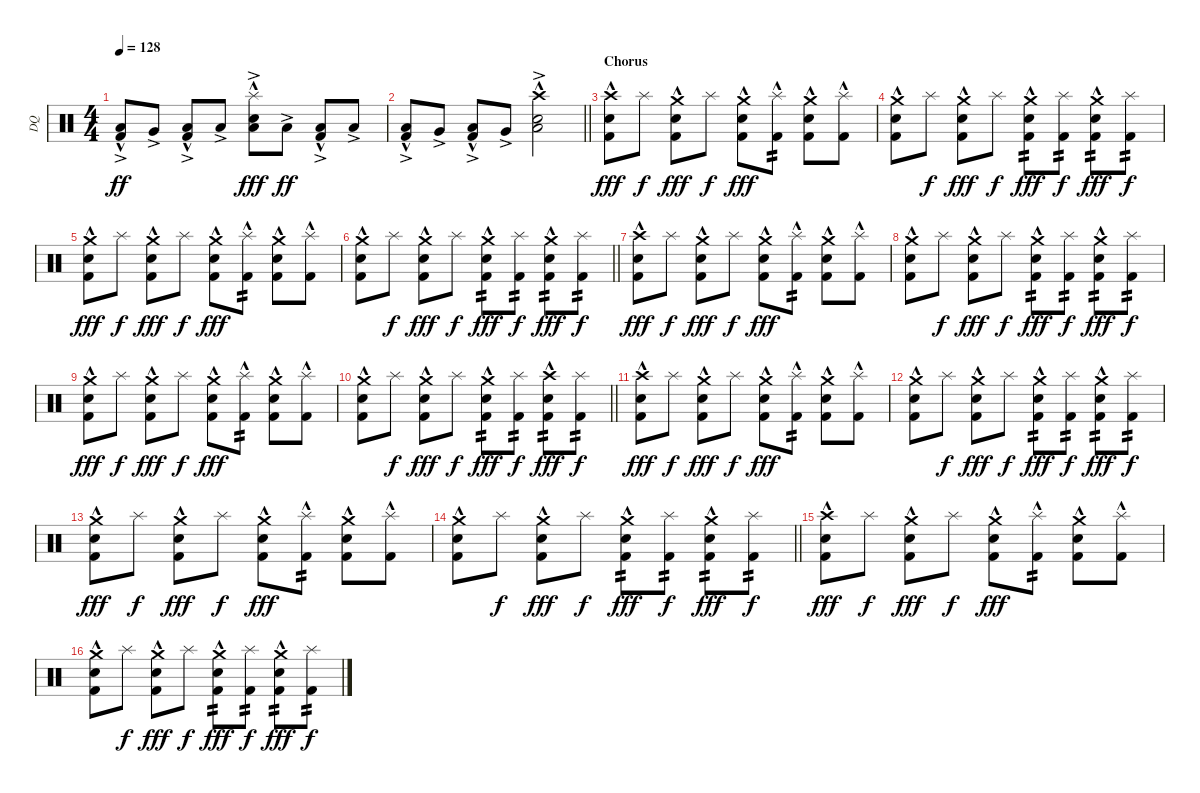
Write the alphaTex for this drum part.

\track ("DQ" "DQ") {instrument percussion}
\staff {score}
\articulation defaults
\ts (4 4)
\tempo 128
\clef neutral
\ks c
("Kick (hit) 2"{hac} "Low Tom (hit)"{ac}).8{dy ff} "Very Low Tom (hit)"{ac}.8 ("Kick (hit) 2"{hac} "Low Floor Tom (hit)"{ac}).8 "Low Floor Tom (hit)"{ac}.8 ("Snare (hit) 2"{hac} "Low Floor Tom (hit)"{ac} "Splash (hit)"{hac}).8{dy fff} "Low Tom (hit)"{ac}.8{dy ff} ("Kick (hit) 2"{hac} "Low Floor Tom (hit)"{ac}).8 "Low Floor Tom (hit)"{ac}.8 |
\barLineRight lightlight
("Kick (hit) 2"{hac} "Low Floor Tom (hit)"{ac}).8 "Very Low Tom (hit)"{ac}.8 ("Kick (hit) 2"{hac} "Low Floor Tom (hit)"{ac}).8 "Very Low Tom (hit)"{ac}.8 ("Snare (hit) 2"{hac} "Low Tom (hit)"{ac} "Crash high (hit)").2 |
\section ("" "Chorus")
("Kick (hit) 2"{hac} "Snare (hit) 2"{hac} "Crash high (hit)").8{dy fff} "Splash (hit)".8{dy f} ("Kick (hit) 2"{hac} "Snare (hit) 2"{hac} "Crash medium (hit)").8{dy fff} "Splash (hit)".8{dy f} ("Kick (hit) 2"{hac} "Snare (hit) 2"{hac} "Crash medium (hit)").8{dy fff} ("Kick (hit) 2"{hac} "Splash (hit)").8{tp 2} ("Kick (hit) 2"{hac} "Snare (hit) 2"{hac} "Crash medium (hit)").8 ("Kick (hit) 2"{hac} "Splash (hit)").8 |
("Kick (hit) 2"{hac} "Snare (hit) 2"{hac} "Crash medium (hit)").8 "Splash (hit)".8{dy f} ("Kick (hit) 2"{hac} "Snare (hit) 2"{hac} "Crash medium (hit)").8{dy fff} "Splash (hit)".8{dy f} ("Kick (hit) 2"{hac} "Snare (hit) 2"{hac} "Crash medium (hit)").8{tp 2 dy fff} ("Kick (hit) 2" "Splash (hit)").8{tp 2 dy f} ("Kick (hit) 2"{hac} "Snare (hit) 2"{hac} "Crash medium (hit)").8{tp 2 dy fff} ("Kick (hit) 2" "Splash (hit)").8{tp 2 dy f} |
("Kick (hit) 2"{hac} "Snare (hit) 2"{hac} "Crash medium (hit)").8{dy fff} "Splash (hit)".8{dy f} ("Kick (hit) 2"{hac} "Snare (hit) 2"{hac} "Crash medium (hit)").8{dy fff} "Splash (hit)".8{dy f} ("Kick (hit) 2"{hac} "Snare (hit) 2"{hac} "Crash medium (hit)").8{dy fff} ("Kick (hit) 2"{hac} "Splash (hit)").8{tp 2} ("Kick (hit) 2"{hac} "Snare (hit) 2"{hac} "Crash medium (hit)").8 ("Kick (hit) 2"{hac} "Splash (hit)").8 |
\barLineRight lightlight
("Kick (hit) 2"{hac} "Snare (hit) 2"{hac} "Crash medium (hit)").8 "Splash (hit)".8{dy f} ("Kick (hit) 2"{hac} "Snare (hit) 2"{hac} "Crash medium (hit)").8{dy fff} "Splash (hit)".8{dy f} ("Kick (hit) 2"{hac} "Snare (hit) 2"{hac} "Crash medium (hit)").8{tp 2 dy fff} ("Kick (hit) 2" "Splash (hit)").8{tp 2 dy f} ("Kick (hit) 2"{hac} "Snare (hit) 2"{hac} "Crash medium (hit)").8{tp 2 dy fff} ("Kick (hit) 2" "Splash (hit)").8{tp 2 dy f} |
\section ("" "")
("Kick (hit) 2"{hac} "Snare (hit) 2"{hac} "Crash high (hit)").8{dy fff} "Splash (hit)".8{dy f} ("Kick (hit) 2"{hac} "Snare (hit) 2"{hac} "Crash medium (hit)").8{dy fff} "Splash (hit)".8{dy f} ("Kick (hit) 2"{hac} "Snare (hit) 2"{hac} "Crash medium (hit)").8{dy fff} ("Kick (hit) 2"{hac} "Splash (hit)").8{tp 2} ("Kick (hit) 2"{hac} "Snare (hit) 2"{hac} "Crash medium (hit)").8 ("Kick (hit) 2"{hac} "Splash (hit)").8 |
("Kick (hit) 2"{hac} "Snare (hit) 2"{hac} "Crash medium (hit)").8 "Splash (hit)".8{dy f} ("Kick (hit) 2"{hac} "Snare (hit) 2"{hac} "Crash medium (hit)").8{dy fff} "Splash (hit)".8{dy f} ("Kick (hit) 2"{hac} "Snare (hit) 2"{hac} "Crash medium (hit)").8{tp 2 dy fff} ("Kick (hit) 2" "Splash (hit)").8{tp 2 dy f} ("Kick (hit) 2"{hac} "Snare (hit) 2"{hac} "Crash medium (hit)").8{tp 2 dy fff} ("Kick (hit) 2" "Splash (hit)").8{tp 2 dy f} |
("Kick (hit) 2"{hac} "Snare (hit) 2"{hac} "Crash medium (hit)").8{dy fff} "Splash (hit)".8{dy f} ("Kick (hit) 2"{hac} "Snare (hit) 2"{hac} "Crash medium (hit)").8{dy fff} "Splash (hit)".8{dy f} ("Kick (hit) 2"{hac} "Snare (hit) 2"{hac} "Crash medium (hit)").8{dy fff} ("Kick (hit) 2"{hac} "Splash (hit)").8{tp 2} ("Kick (hit) 2"{hac} "Snare (hit) 2"{hac} "Crash medium (hit)").8 ("Kick (hit) 2"{hac} "Splash (hit)").8 |
\barLineRight lightlight
("Kick (hit) 2"{hac} "Snare (hit) 2"{hac} "Crash medium (hit)").8 "Splash (hit)".8{dy f} ("Kick (hit) 2"{hac} "Snare (hit) 2"{hac} "Crash medium (hit)").8{dy fff} "Splash (hit)".8{dy f} ("Kick (hit) 2"{hac} "Snare (hit) 2"{hac} "Crash medium (hit)").8{tp 2 dy fff} ("Kick (hit) 2" "Splash (hit)").8{tp 2 dy f} ("Kick (hit) 2"{hac} "Snare (hit) 2"{hac} "Crash high (hit)").8{tp 2 dy fff} ("Kick (hit) 2" "Splash (hit)").8{tp 2 dy f} |
\section ("" "")
("Kick (hit) 2"{hac} "Snare (hit) 2"{hac} "Crash high (hit)").8{dy fff} "Splash (hit)".8{dy f} ("Kick (hit) 2"{hac} "Snare (hit) 2"{hac} "Crash medium (hit)").8{dy fff} "Splash (hit)".8{dy f} ("Kick (hit) 2"{hac} "Snare (hit) 2"{hac} "Crash medium (hit)").8{dy fff} ("Kick (hit) 2"{hac} "Splash (hit)").8{tp 2} ("Kick (hit) 2"{hac} "Snare (hit) 2"{hac} "Crash medium (hit)").8 ("Kick (hit) 2"{hac} "Splash (hit)").8 |
("Kick (hit) 2"{hac} "Snare (hit) 2"{hac} "Crash medium (hit)").8 "Splash (hit)".8{dy f} ("Kick (hit) 2"{hac} "Snare (hit) 2"{hac} "Crash medium (hit)").8{dy fff} "Splash (hit)".8{dy f} ("Kick (hit) 2"{hac} "Snare (hit) 2"{hac} "Crash medium (hit)").8{tp 2 dy fff} ("Kick (hit) 2" "Splash (hit)").8{tp 2 dy f} ("Kick (hit) 2"{hac} "Snare (hit) 2"{hac} "Crash medium (hit)").8{tp 2 dy fff} ("Kick (hit) 2" "Splash (hit)").8{tp 2 dy f} |
("Kick (hit) 2"{hac} "Snare (hit) 2"{hac} "Crash medium (hit)").8{dy fff} "Splash (hit)".8{dy f} ("Kick (hit) 2"{hac} "Snare (hit) 2"{hac} "Crash medium (hit)").8{dy fff} "Splash (hit)".8{dy f} ("Kick (hit) 2"{hac} "Snare (hit) 2"{hac} "Crash medium (hit)").8{dy fff} ("Kick (hit) 2"{hac} "Splash (hit)").8{tp 2} ("Kick (hit) 2"{hac} "Snare (hit) 2"{hac} "Crash medium (hit)").8 ("Kick (hit) 2"{hac} "Splash (hit)").8 |
\barLineRight lightlight
("Kick (hit) 2"{hac} "Snare (hit) 2"{hac} "Crash medium (hit)").8 "Splash (hit)".8{dy f} ("Kick (hit) 2"{hac} "Snare (hit) 2"{hac} "Crash medium (hit)").8{dy fff} "Splash (hit)".8{dy f} ("Kick (hit) 2"{hac} "Snare (hit) 2"{hac} "Crash medium (hit)").8{tp 2 dy fff} ("Kick (hit) 2" "Splash (hit)").8{tp 2 dy f} ("Kick (hit) 2"{hac} "Snare (hit) 2"{hac} "Crash medium (hit)").8{tp 2 dy fff} ("Kick (hit) 2" "Splash (hit)").8{tp 2 dy f} |
\section ("" "")
("Kick (hit) 2"{hac} "Snare (hit) 2"{hac} "Crash high (hit)").8{dy fff} "Splash (hit)".8{dy f} ("Kick (hit) 2"{hac} "Snare (hit) 2"{hac} "Crash medium (hit)").8{dy fff} "Splash (hit)".8{dy f} ("Kick (hit) 2"{hac} "Snare (hit) 2"{hac} "Crash medium (hit)").8{dy fff} ("Kick (hit) 2"{hac} "Splash (hit)").8{tp 2} ("Kick (hit) 2"{hac} "Snare (hit) 2"{hac} "Crash medium (hit)").8 ("Kick (hit) 2"{hac} "Splash (hit)").8 |
("Kick (hit) 2"{hac} "Snare (hit) 2"{hac} "Crash medium (hit)").8 "Splash (hit)".8{dy f} ("Kick (hit) 2"{hac} "Snare (hit) 2"{hac} "Crash medium (hit)").8{dy fff} "Splash (hit)".8{dy f} ("Kick (hit) 2"{hac} "Snare (hit) 2"{hac} "Crash medium (hit)").8{tp 2 dy fff} ("Kick (hit) 2" "Splash (hit)").8{tp 2 dy f} ("Kick (hit) 2"{hac} "Snare (hit) 2"{hac} "Crash medium (hit)").8{tp 2 dy fff} ("Kick (hit) 2" "Splash (hit)").8{tp 2 dy f}
